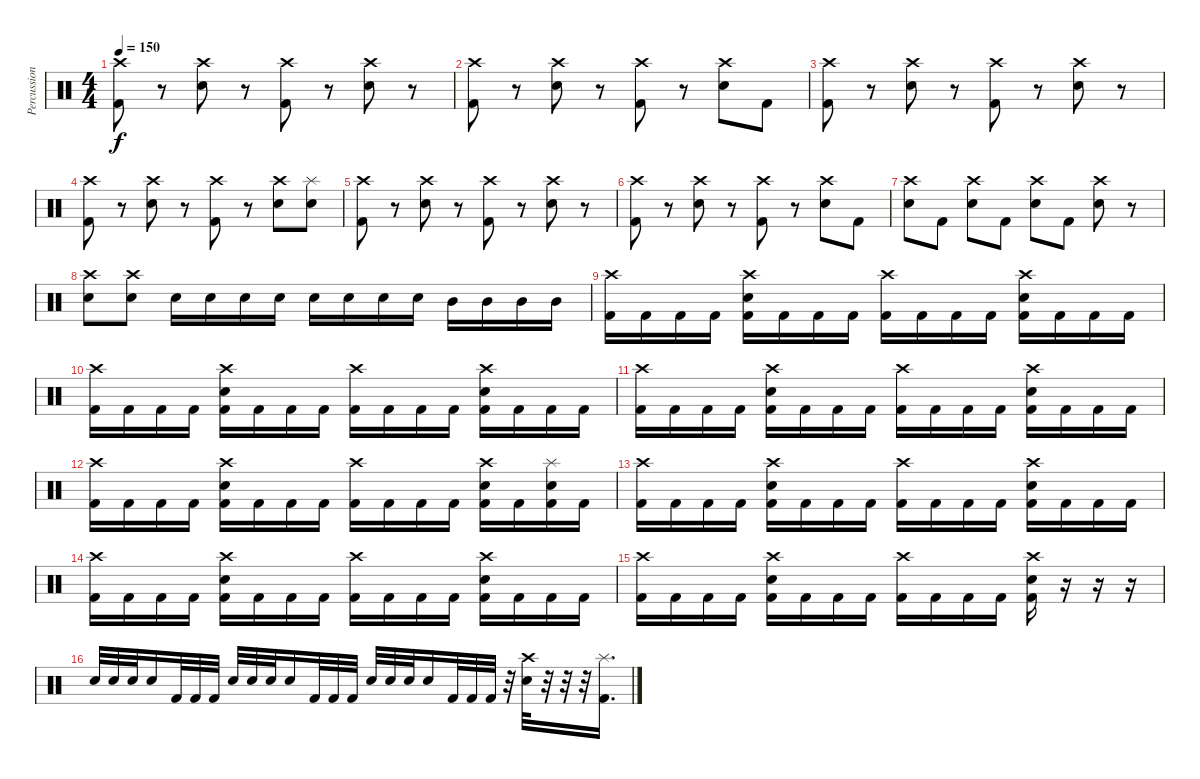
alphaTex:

\track ("Percussion" "Percussion") {instrument percussion}
\staff {score}
\articulation defaults
\ts (4 4)
\tempo 150
\clef neutral
\ks c
("Crash high (hit)" "Kick (hit) 2").8{dy f} r.8 ("Crash high (hit)" "Snare (hit) 2").8 r.8 ("Crash high (hit)" "Kick (hit) 2").8 r.8 ("Crash high (hit)" "Snare (hit) 2").8 r.8 |
("Crash high (hit)" "Kick (hit) 2").8 r.8 ("Crash high (hit)" "Snare (hit) 2").8 r.8 ("Crash high (hit)" "Kick (hit) 2").8 r.8 ("Crash high (hit)" "Snare (hit) 2").8 "Kick (hit) 2".8 |
("Crash high (hit)" "Kick (hit) 2").8 r.8 ("Crash high (hit)" "Snare (hit) 2").8 r.8 ("Crash high (hit)" "Kick (hit) 2").8 r.8 ("Crash high (hit)" "Snare (hit) 2").8 r.8 |
("Crash high (hit)" "Kick (hit) 2").8 r.8 ("Crash high (hit)" "Snare (hit) 2").8 r.8 ("Crash high (hit)" "Kick (hit) 2").8 r.8 ("Crash high (hit)" "Snare (hit) 2").8 ("Splash (hit)" "Snare (hit) 2").8 |
("Crash high (hit)" "Kick (hit) 2").8 r.8 ("Crash high (hit)" "Snare (hit) 2").8 r.8 ("Crash high (hit)" "Kick (hit) 2").8 r.8 ("Crash high (hit)" "Snare (hit) 2").8 r.8 |
("Crash high (hit)" "Kick (hit) 2").8 r.8 ("Crash high (hit)" "Snare (hit) 2").8 r.8 ("Crash high (hit)" "Kick (hit) 2").8 r.8 ("Crash high (hit)" "Snare (hit) 2").8 "Kick (hit) 2".8 |
("Crash high (hit)" "Snare (hit) 2").8 "Kick (hit) 2".8 ("Crash high (hit)" "Snare (hit) 2").8 "Kick (hit) 2".8 ("Crash high (hit)" "Snare (hit) 2").8 "Kick (hit) 2".8 ("Crash high (hit)" "Snare (hit) 2").8 r.8 |
("Crash high (hit)" "Snare (hit) 2").8 ("Crash high (hit)" "Snare (hit) 2").8 "Snare (hit) 2".16 "Snare (hit) 2".16 "Snare (hit) 2".16 "Snare (hit) 2".16 "Snare (hit) 2".16 "Snare (hit) 2".16 "Snare (hit) 2".16 "Snare (hit) 2".16 "Mid Tom (hit)".16 "Mid Tom (hit)".16 "Mid Tom (hit)".16 "Mid Tom (hit)".16 |
("Crash high (hit)" "Kick (hit) 2").16 "Kick (hit) 2".16 "Kick (hit) 2".16 "Kick (hit) 2".16 ("Crash high (hit)" "Snare (hit) 2" "Kick (hit) 2").16 "Kick (hit) 2".16 "Kick (hit) 2".16 "Kick (hit) 2".16 ("Crash high (hit)" "Kick (hit) 2").16 "Kick (hit) 2".16 "Kick (hit) 2".16 "Kick (hit) 2".16 ("Crash high (hit)" "Snare (hit) 2" "Kick (hit) 2").16 "Kick (hit) 2".16 "Kick (hit) 2".16 "Kick (hit) 2".16 |
("Crash high (hit)" "Kick (hit) 2").16 "Kick (hit) 2".16 "Kick (hit) 2".16 "Kick (hit) 2".16 ("Crash high (hit)" "Snare (hit) 2" "Kick (hit) 2").16 "Kick (hit) 2".16 "Kick (hit) 2".16 "Kick (hit) 2".16 ("Crash high (hit)" "Kick (hit) 2").16 "Kick (hit) 2".16 "Kick (hit) 2".16 "Kick (hit) 2".16 ("Crash high (hit)" "Snare (hit) 2" "Kick (hit) 2").16 "Kick (hit) 2".16 "Kick (hit) 2".16 "Kick (hit) 2".16 |
("Crash high (hit)" "Kick (hit) 2").16 "Kick (hit) 2".16 "Kick (hit) 2".16 "Kick (hit) 2".16 ("Crash high (hit)" "Snare (hit) 2" "Kick (hit) 2").16 "Kick (hit) 2".16 "Kick (hit) 2".16 "Kick (hit) 2".16 ("Crash high (hit)" "Kick (hit) 2").16 "Kick (hit) 2".16 "Kick (hit) 2".16 "Kick (hit) 2".16 ("Crash high (hit)" "Snare (hit) 2" "Kick (hit) 2").16 "Kick (hit) 2".16 "Kick (hit) 2".16 "Kick (hit) 2".16 |
("Crash high (hit)" "Kick (hit) 2").16 "Kick (hit) 2".16 "Kick (hit) 2".16 "Kick (hit) 2".16 ("Crash high (hit)" "Snare (hit) 2" "Kick (hit) 2").16 "Kick (hit) 2".16 "Kick (hit) 2".16 "Kick (hit) 2".16 ("Crash high (hit)" "Kick (hit) 2").16 "Kick (hit) 2".16 "Kick (hit) 2".16 "Kick (hit) 2".16 ("Crash high (hit)" "Snare (hit) 2" "Kick (hit) 2").16 "Kick (hit) 2".16 ("Splash (hit)" "Snare (hit) 2" "Kick (hit) 2").16 "Kick (hit) 2".16 |
("Crash high (hit)" "Kick (hit) 2").16 "Kick (hit) 2".16 "Kick (hit) 2".16 "Kick (hit) 2".16 ("Crash high (hit)" "Snare (hit) 2" "Kick (hit) 2").16 "Kick (hit) 2".16 "Kick (hit) 2".16 "Kick (hit) 2".16 ("Crash high (hit)" "Kick (hit) 2").16 "Kick (hit) 2".16 "Kick (hit) 2".16 "Kick (hit) 2".16 ("Crash high (hit)" "Snare (hit) 2" "Kick (hit) 2").16 "Kick (hit) 2".16 "Kick (hit) 2".16 "Kick (hit) 2".16 |
("Crash high (hit)" "Kick (hit) 2").16 "Kick (hit) 2".16 "Kick (hit) 2".16 "Kick (hit) 2".16 ("Crash high (hit)" "Snare (hit) 2" "Kick (hit) 2").16 "Kick (hit) 2".16 "Kick (hit) 2".16 "Kick (hit) 2".16 ("Crash high (hit)" "Kick (hit) 2").16 "Kick (hit) 2".16 "Kick (hit) 2".16 "Kick (hit) 2".16 ("Crash high (hit)" "Snare (hit) 2" "Kick (hit) 2").16 "Kick (hit) 2".16 "Kick (hit) 2".16 "Kick (hit) 2".16 |
("Crash high (hit)" "Kick (hit) 2").16 "Kick (hit) 2".16 "Kick (hit) 2".16 "Kick (hit) 2".16 ("Crash high (hit)" "Snare (hit) 2" "Kick (hit) 2").16 "Kick (hit) 2".16 "Kick (hit) 2".16 "Kick (hit) 2".16 ("Crash high (hit)" "Kick (hit) 2").16 "Kick (hit) 2".16 "Kick (hit) 2".16 "Kick (hit) 2".16 ("Crash high (hit)" "Snare (hit) 2" "Kick (hit) 2").16 r.16 r.16 r.16 |
"Snare (hit) 2".32 "Snare (hit) 2".32 "Snare (hit) 2".32 "Snare (hit) 2".16 "Kick (hit) 2".32 "Kick (hit) 2".32 "Kick (hit) 2".32 "Snare (hit) 2".32 "Snare (hit) 2".32 "Snare (hit) 2".32 "Snare (hit) 2".16 "Kick (hit) 2".32 "Kick (hit) 2".32 "Kick (hit) 2".32 "Snare (hit) 2".32 "Snare (hit) 2".32 "Snare (hit) 2".32 "Snare (hit) 2".16 "Kick (hit) 2".32 "Kick (hit) 2".32 "Kick (hit) 2".32 r.32 ("Crash high (hit)" "Snare (hit) 2").32 r.32 r.32 r.32 ("Splash (hit)" "Kick (hit) 2").16{d}
